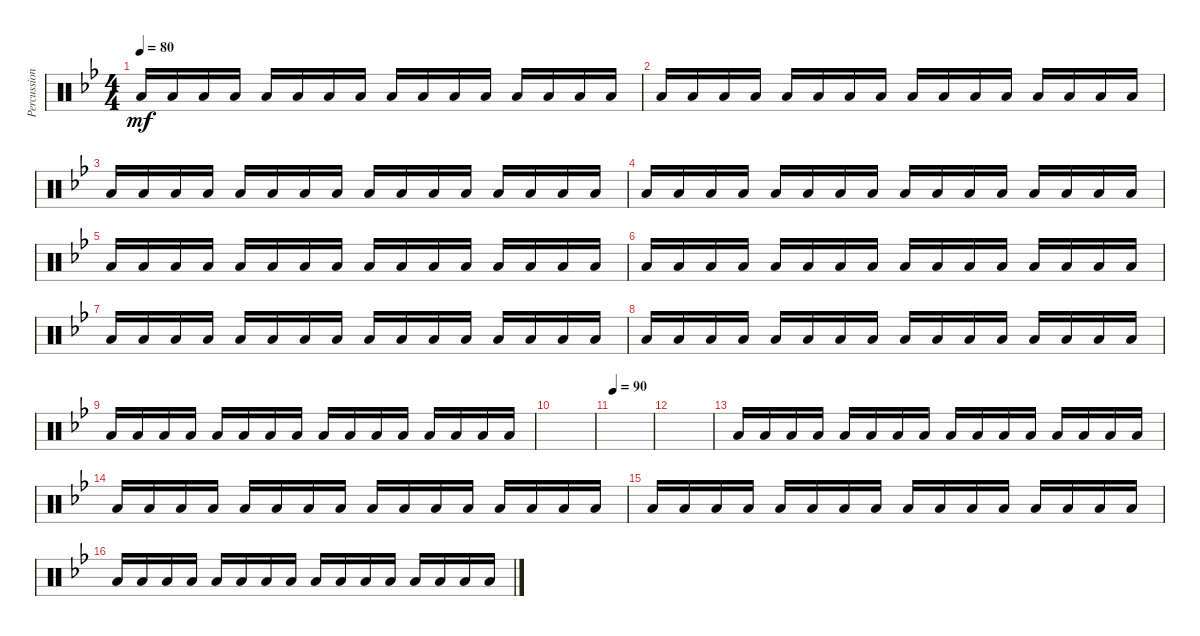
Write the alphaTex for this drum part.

\track ("Percussion" "Percussion") {instrument percussion}
\staff {score}
\articulation defaults
\ts (4 4)
\tempo 80
\clef neutral
\ks bb "Low Floor Tom (hit)".16{dy mf} "Low Floor Tom (hit)".16 "Low Floor Tom (hit)".16 "Low Floor Tom (hit)".16 "Low Floor Tom (hit)".16 "Low Floor Tom (hit)".16 "Low Floor Tom (hit)".16 "Low Floor Tom (hit)".16 "Low Floor Tom (hit)".16 "Low Floor Tom (hit)".16 "Low Floor Tom (hit)".16 "Low Floor Tom (hit)".16 "Low Floor Tom (hit)".16 "Low Floor Tom (hit)".16 "Low Floor Tom (hit)".16 "Low Floor Tom (hit)".16
|
"Low Floor Tom (hit)".16 "Low Floor Tom (hit)".16 "Low Floor Tom (hit)".16 "Low Floor Tom (hit)".16 "Low Floor Tom (hit)".16 "Low Floor Tom (hit)".16 "Low Floor Tom (hit)".16 "Low Floor Tom (hit)".16 "Low Floor Tom (hit)".16 "Low Floor Tom (hit)".16 "Low Floor Tom (hit)".16 "Low Floor Tom (hit)".16 "Low Floor Tom (hit)".16 "Low Floor Tom (hit)".16 "Low Floor Tom (hit)".16 "Low Floor Tom (hit)".16 |
"Low Floor Tom (hit)".16 "Low Floor Tom (hit)".16 "Low Floor Tom (hit)".16 "Low Floor Tom (hit)".16 "Low Floor Tom (hit)".16 "Low Floor Tom (hit)".16 "Low Floor Tom (hit)".16 "Low Floor Tom (hit)".16 "Low Floor Tom (hit)".16 "Low Floor Tom (hit)".16 "Low Floor Tom (hit)".16 "Low Floor Tom (hit)".16 "Low Floor Tom (hit)".16 "Low Floor Tom (hit)".16 "Low Floor Tom (hit)".16 "Low Floor Tom (hit)".16 |
"Low Floor Tom (hit)".16 "Low Floor Tom (hit)".16 "Low Floor Tom (hit)".16 "Low Floor Tom (hit)".16 "Low Floor Tom (hit)".16 "Low Floor Tom (hit)".16 "Low Floor Tom (hit)".16 "Low Floor Tom (hit)".16 "Low Floor Tom (hit)".16 "Low Floor Tom (hit)".16 "Low Floor Tom (hit)".16 "Low Floor Tom (hit)".16 "Low Floor Tom (hit)".16 "Low Floor Tom (hit)".16 "Low Floor Tom (hit)".16 "Low Floor Tom (hit)".16 |
"Low Floor Tom (hit)".16 "Low Floor Tom (hit)".16 "Low Floor Tom (hit)".16 "Low Floor Tom (hit)".16 "Low Floor Tom (hit)".16 "Low Floor Tom (hit)".16 "Low Floor Tom (hit)".16 "Low Floor Tom (hit)".16 "Low Floor Tom (hit)".16 "Low Floor Tom (hit)".16 "Low Floor Tom (hit)".16 "Low Floor Tom (hit)".16 "Low Floor Tom (hit)".16 "Low Floor Tom (hit)".16 "Low Floor Tom (hit)".16 "Low Floor Tom (hit)".16 |
"Low Floor Tom (hit)".16 "Low Floor Tom (hit)".16 "Low Floor Tom (hit)".16 "Low Floor Tom (hit)".16 "Low Floor Tom (hit)".16 "Low Floor Tom (hit)".16 "Low Floor Tom (hit)".16 "Low Floor Tom (hit)".16 "Low Floor Tom (hit)".16 "Low Floor Tom (hit)".16 "Low Floor Tom (hit)".16 "Low Floor Tom (hit)".16 "Low Floor Tom (hit)".16 "Low Floor Tom (hit)".16 "Low Floor Tom (hit)".16 "Low Floor Tom (hit)".16 |
"Low Floor Tom (hit)".16 "Low Floor Tom (hit)".16 "Low Floor Tom (hit)".16 "Low Floor Tom (hit)".16 "Low Floor Tom (hit)".16 "Low Floor Tom (hit)".16 "Low Floor Tom (hit)".16 "Low Floor Tom (hit)".16 "Low Floor Tom (hit)".16 "Low Floor Tom (hit)".16 "Low Floor Tom (hit)".16 "Low Floor Tom (hit)".16 "Low Floor Tom (hit)".16 "Low Floor Tom (hit)".16 "Low Floor Tom (hit)".16 "Low Floor Tom (hit)".16 |
"Low Floor Tom (hit)".16 "Low Floor Tom (hit)".16 "Low Floor Tom (hit)".16 "Low Floor Tom (hit)".16 "Low Floor Tom (hit)".16 "Low Floor Tom (hit)".16 "Low Floor Tom (hit)".16 "Low Floor Tom (hit)".16 "Low Floor Tom (hit)".16 "Low Floor Tom (hit)".16 "Low Floor Tom (hit)".16 "Low Floor Tom (hit)".16 "Low Floor Tom (hit)".16 "Low Floor Tom (hit)".16 "Low Floor Tom (hit)".16 "Low Floor Tom (hit)".16 |
"Low Floor Tom (hit)".16 "Low Floor Tom (hit)".16 "Low Floor Tom (hit)".16 "Low Floor Tom (hit)".16 "Low Floor Tom (hit)".16 "Low Floor Tom (hit)".16 "Low Floor Tom (hit)".16 "Low Floor Tom (hit)".16 "Low Floor Tom (hit)".16 "Low Floor Tom (hit)".16 "Low Floor Tom (hit)".16 "Low Floor Tom (hit)".16 "Low Floor Tom (hit)".16 "Low Floor Tom (hit)".16 "Low Floor Tom (hit)".16 "Low Floor Tom (hit)".16 |
|
\tempo 90
|
|
"Low Floor Tom (hit)".16 "Low Floor Tom (hit)".16 "Low Floor Tom (hit)".16 "Low Floor Tom (hit)".16 "Low Floor Tom (hit)".16 "Low Floor Tom (hit)".16 "Low Floor Tom (hit)".16 "Low Floor Tom (hit)".16 "Low Floor Tom (hit)".16 "Low Floor Tom (hit)".16 "Low Floor Tom (hit)".16 "Low Floor Tom (hit)".16 "Low Floor Tom (hit)".16 "Low Floor Tom (hit)".16 "Low Floor Tom (hit)".16 "Low Floor Tom (hit)".16 |
"Low Floor Tom (hit)".16 "Low Floor Tom (hit)".16 "Low Floor Tom (hit)".16 "Low Floor Tom (hit)".16 "Low Floor Tom (hit)".16 "Low Floor Tom (hit)".16 "Low Floor Tom (hit)".16 "Low Floor Tom (hit)".16 "Low Floor Tom (hit)".16 "Low Floor Tom (hit)".16 "Low Floor Tom (hit)".16 "Low Floor Tom (hit)".16 "Low Floor Tom (hit)".16 "Low Floor Tom (hit)".16 "Low Floor Tom (hit)".16 "Low Floor Tom (hit)".16 |
"Low Floor Tom (hit)".16 "Low Floor Tom (hit)".16 "Low Floor Tom (hit)".16 "Low Floor Tom (hit)".16 "Low Floor Tom (hit)".16 "Low Floor Tom (hit)".16 "Low Floor Tom (hit)".16 "Low Floor Tom (hit)".16 "Low Floor Tom (hit)".16 "Low Floor Tom (hit)".16 "Low Floor Tom (hit)".16 "Low Floor Tom (hit)".16 "Low Floor Tom (hit)".16 "Low Floor Tom (hit)".16 "Low Floor Tom (hit)".16 "Low Floor Tom (hit)".16 |
"Low Floor Tom (hit)".16 "Low Floor Tom (hit)".16 "Low Floor Tom (hit)".16 "Low Floor Tom (hit)".16 "Low Floor Tom (hit)".16 "Low Floor Tom (hit)".16 "Low Floor Tom (hit)".16 "Low Floor Tom (hit)".16 "Low Floor Tom (hit)".16 "Low Floor Tom (hit)".16 "Low Floor Tom (hit)".16 "Low Floor Tom (hit)".16 "Low Floor Tom (hit)".16 "Low Floor Tom (hit)".16 "Low Floor Tom (hit)".16 "Low Floor Tom (hit)".16
